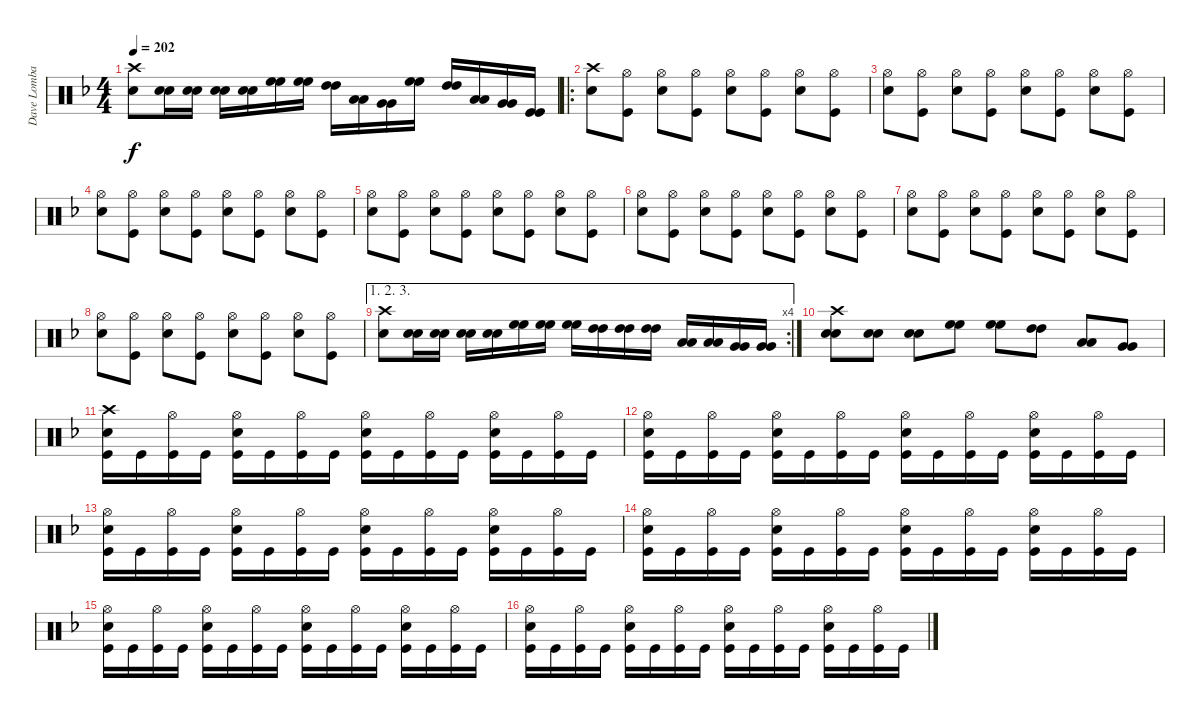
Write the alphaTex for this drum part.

\track ("Dave Lombardo - Drums" "Dave Lomba") {instrument percussion}
\staff {score}
\articulation defaults
\ts (4 4)
\tempo 202
\clef neutral
\ks f
("Crash high (hit)" "Snare (hit) 2").8{dy f} ("Snare (hit) 2" "Snare (hit) 2").16 ("Snare (hit) 2" "Snare (hit) 2").16 ("Snare (hit) 2" "Snare (hit) 2").16 ("Snare (hit) 2" "Snare (hit) 2").16 ("High Floor Tom (hit)" "High Floor Tom (hit)").16 ("High Floor Tom (hit)" "High Floor Tom (hit)").16 ("High Tom (hit)" "High Tom (hit)").16 ("Low Tom (hit)" "Low Tom (hit)").16 ("Very Low Tom (hit)" "Very Low Tom (hit)").16 ("High Floor Tom (hit)" "High Floor Tom (hit)").16 ("High Tom (hit)" "High Tom (hit)").16 ("Low Tom (hit)" "Low Tom (hit)").16 ("Very Low Tom (hit)" "Very Low Tom (hit)").16 ("Kick (hit)" "Kick (hit)").16 |
\ro
("Crash high (hit)" "Snare (hit) 2").8 ("Hi-Hat (open)" "Kick (hit)").8 ("Hi-Hat (open)" "Snare (hit) 2").8 ("Hi-Hat (open)" "Kick (hit)").8 ("Hi-Hat (open)" "Snare (hit) 2").8 ("Hi-Hat (open)" "Kick (hit)").8 ("Hi-Hat (open)" "Snare (hit) 2").8 ("Hi-Hat (open)" "Kick (hit)").8 |
("Hi-Hat (open)" "Snare (hit) 2").8 ("Hi-Hat (open)" "Kick (hit)").8 ("Hi-Hat (open)" "Snare (hit) 2").8 ("Hi-Hat (open)" "Kick (hit)").8 ("Hi-Hat (open)" "Snare (hit) 2").8 ("Hi-Hat (open)" "Kick (hit)").8 ("Hi-Hat (open)" "Snare (hit) 2").8 ("Hi-Hat (open)" "Kick (hit)").8 |
("Hi-Hat (open)" "Snare (hit) 2").8 ("Hi-Hat (open)" "Kick (hit)").8 ("Hi-Hat (open)" "Snare (hit) 2").8 ("Hi-Hat (open)" "Kick (hit)").8 ("Hi-Hat (open)" "Snare (hit) 2").8 ("Hi-Hat (open)" "Kick (hit)").8 ("Hi-Hat (open)" "Snare (hit) 2").8 ("Hi-Hat (open)" "Kick (hit)").8 |
("Hi-Hat (open)" "Snare (hit) 2").8 ("Hi-Hat (open)" "Kick (hit)").8 ("Hi-Hat (open)" "Snare (hit) 2").8 ("Hi-Hat (open)" "Kick (hit)").8 ("Hi-Hat (open)" "Snare (hit) 2").8 ("Hi-Hat (open)" "Kick (hit)").8 ("Hi-Hat (open)" "Snare (hit) 2").8 ("Hi-Hat (open)" "Kick (hit)").8 |
("Hi-Hat (open)" "Snare (hit) 2").8 ("Hi-Hat (open)" "Kick (hit)").8 ("Hi-Hat (open)" "Snare (hit) 2").8 ("Hi-Hat (open)" "Kick (hit)").8 ("Hi-Hat (open)" "Snare (hit) 2").8 ("Hi-Hat (open)" "Kick (hit)").8 ("Hi-Hat (open)" "Snare (hit) 2").8 ("Hi-Hat (open)" "Kick (hit)").8 |
("Hi-Hat (open)" "Snare (hit) 2").8 ("Hi-Hat (open)" "Kick (hit)").8 ("Hi-Hat (open)" "Snare (hit) 2").8 ("Hi-Hat (open)" "Kick (hit)").8 ("Hi-Hat (open)" "Snare (hit) 2").8 ("Hi-Hat (open)" "Kick (hit)").8 ("Hi-Hat (open)" "Snare (hit) 2").8 ("Hi-Hat (open)" "Kick (hit)").8 |
("Hi-Hat (open)" "Snare (hit) 2").8 ("Hi-Hat (open)" "Kick (hit)").8 ("Hi-Hat (open)" "Snare (hit) 2").8 ("Hi-Hat (open)" "Kick (hit)").8 ("Hi-Hat (open)" "Snare (hit) 2").8 ("Hi-Hat (open)" "Kick (hit)").8 ("Hi-Hat (open)" "Snare (hit) 2").8 ("Hi-Hat (open)" "Kick (hit)").8 |
\ae (1 2 3)
\rc 4
("Crash high (hit)" "Snare (hit) 2").8 ("Snare (hit) 2" "Snare (hit) 2").16 ("Snare (hit) 2" "Snare (hit) 2").16 ("Snare (hit) 2" "Snare (hit) 2").16 ("Snare (hit) 2" "Snare (hit) 2").16 ("High Floor Tom (hit)" "High Floor Tom (hit)").16 ("High Floor Tom (hit)" "High Floor Tom (hit)").16 ("High Floor Tom (hit)" "High Floor Tom (hit)").16 ("High Tom (hit)" "High Tom (hit)").16 ("High Tom (hit)" "High Tom (hit)").16 ("High Tom (hit)" "High Tom (hit)").16 ("Low Tom (hit)" "Low Tom (hit)").16 ("Low Tom (hit)" "Low Tom (hit)").16 ("Very Low Tom (hit)" "Very Low Tom (hit)").16 ("Very Low Tom (hit)" "Very Low Tom (hit)").16 |
("Crash high (hit)" "Snare (hit) 2" "Snare (hit) 2").8 ("Snare (hit) 2" "Snare (hit) 2").8 ("Snare (hit) 2" "Snare (hit) 2").8 ("High Floor Tom (hit)" "High Floor Tom (hit)").8 ("High Floor Tom (hit)" "High Floor Tom (hit)").8 ("High Tom (hit)" "High Tom (hit)").8 ("Low Tom (hit)" "Low Tom (hit)").8 ("Very Low Tom (hit)" "Very Low Tom (hit)").8 |
("Crash high (hit)" "Snare (hit) 2" "Kick (hit)").16 "Kick (hit)".16 ("Hi-Hat (open)" "Kick (hit)").16 "Kick (hit)".16 ("Hi-Hat (open)" "Snare (hit) 2" "Kick (hit)").16 "Kick (hit)".16 ("Hi-Hat (open)" "Kick (hit)").16 "Kick (hit)".16 ("Hi-Hat (open)" "Snare (hit) 2" "Kick (hit)").16 "Kick (hit)".16 ("Hi-Hat (open)" "Kick (hit)").16 "Kick (hit)".16 ("Hi-Hat (open)" "Snare (hit) 2" "Kick (hit)").16 "Kick (hit)".16 ("Hi-Hat (open)" "Kick (hit)").16 "Kick (hit)".16 |
("Hi-Hat (open)" "Snare (hit) 2" "Kick (hit)").16 "Kick (hit)".16 ("Hi-Hat (open)" "Kick (hit)").16 "Kick (hit)".16 ("Hi-Hat (open)" "Snare (hit) 2" "Kick (hit)").16 "Kick (hit)".16 ("Hi-Hat (open)" "Kick (hit)").16 "Kick (hit)".16 ("Hi-Hat (open)" "Snare (hit) 2" "Kick (hit)").16 "Kick (hit)".16 ("Hi-Hat (open)" "Kick (hit)").16 "Kick (hit)".16 ("Hi-Hat (open)" "Snare (hit) 2" "Kick (hit)").16 "Kick (hit)".16 ("Hi-Hat (open)" "Kick (hit)").16 "Kick (hit)".16 |
("Hi-Hat (open)" "Snare (hit) 2" "Kick (hit)").16 "Kick (hit)".16 ("Hi-Hat (open)" "Kick (hit)").16 "Kick (hit)".16 ("Hi-Hat (open)" "Snare (hit) 2" "Kick (hit)").16 "Kick (hit)".16 ("Hi-Hat (open)" "Kick (hit)").16 "Kick (hit)".16 ("Hi-Hat (open)" "Snare (hit) 2" "Kick (hit)").16 "Kick (hit)".16 ("Hi-Hat (open)" "Kick (hit)").16 "Kick (hit)".16 ("Hi-Hat (open)" "Snare (hit) 2" "Kick (hit)").16 "Kick (hit)".16 ("Hi-Hat (open)" "Kick (hit)").16 "Kick (hit)".16 |
("Hi-Hat (open)" "Snare (hit) 2" "Kick (hit)").16 "Kick (hit)".16 ("Hi-Hat (open)" "Kick (hit)").16 "Kick (hit)".16 ("Hi-Hat (open)" "Snare (hit) 2" "Kick (hit)").16 "Kick (hit)".16 ("Hi-Hat (open)" "Kick (hit)").16 "Kick (hit)".16 ("Hi-Hat (open)" "Snare (hit) 2" "Kick (hit)").16 "Kick (hit)".16 ("Hi-Hat (open)" "Kick (hit)").16 "Kick (hit)".16 ("Hi-Hat (open)" "Snare (hit) 2" "Kick (hit)").16 "Kick (hit)".16 ("Hi-Hat (open)" "Kick (hit)").16 "Kick (hit)".16 |
("Hi-Hat (open)" "Snare (hit) 2" "Kick (hit)").16 "Kick (hit)".16 ("Hi-Hat (open)" "Kick (hit)").16 "Kick (hit)".16 ("Hi-Hat (open)" "Snare (hit) 2" "Kick (hit)").16 "Kick (hit)".16 ("Hi-Hat (open)" "Kick (hit)").16 "Kick (hit)".16 ("Hi-Hat (open)" "Snare (hit) 2" "Kick (hit)").16 "Kick (hit)".16 ("Hi-Hat (open)" "Kick (hit)").16 "Kick (hit)".16 ("Hi-Hat (open)" "Snare (hit) 2" "Kick (hit)").16 "Kick (hit)".16 ("Hi-Hat (open)" "Kick (hit)").16 "Kick (hit)".16 |
("Hi-Hat (open)" "Snare (hit) 2" "Kick (hit)").16 "Kick (hit)".16 ("Hi-Hat (open)" "Kick (hit)").16 "Kick (hit)".16 ("Hi-Hat (open)" "Snare (hit) 2" "Kick (hit)").16 "Kick (hit)".16 ("Hi-Hat (open)" "Kick (hit)").16 "Kick (hit)".16 ("Hi-Hat (open)" "Snare (hit) 2" "Kick (hit)").16 "Kick (hit)".16 ("Hi-Hat (open)" "Kick (hit)").16 "Kick (hit)".16 ("Hi-Hat (open)" "Snare (hit) 2" "Kick (hit)").16 "Kick (hit)".16 ("Hi-Hat (open)" "Kick (hit)").16 "Kick (hit)".16
